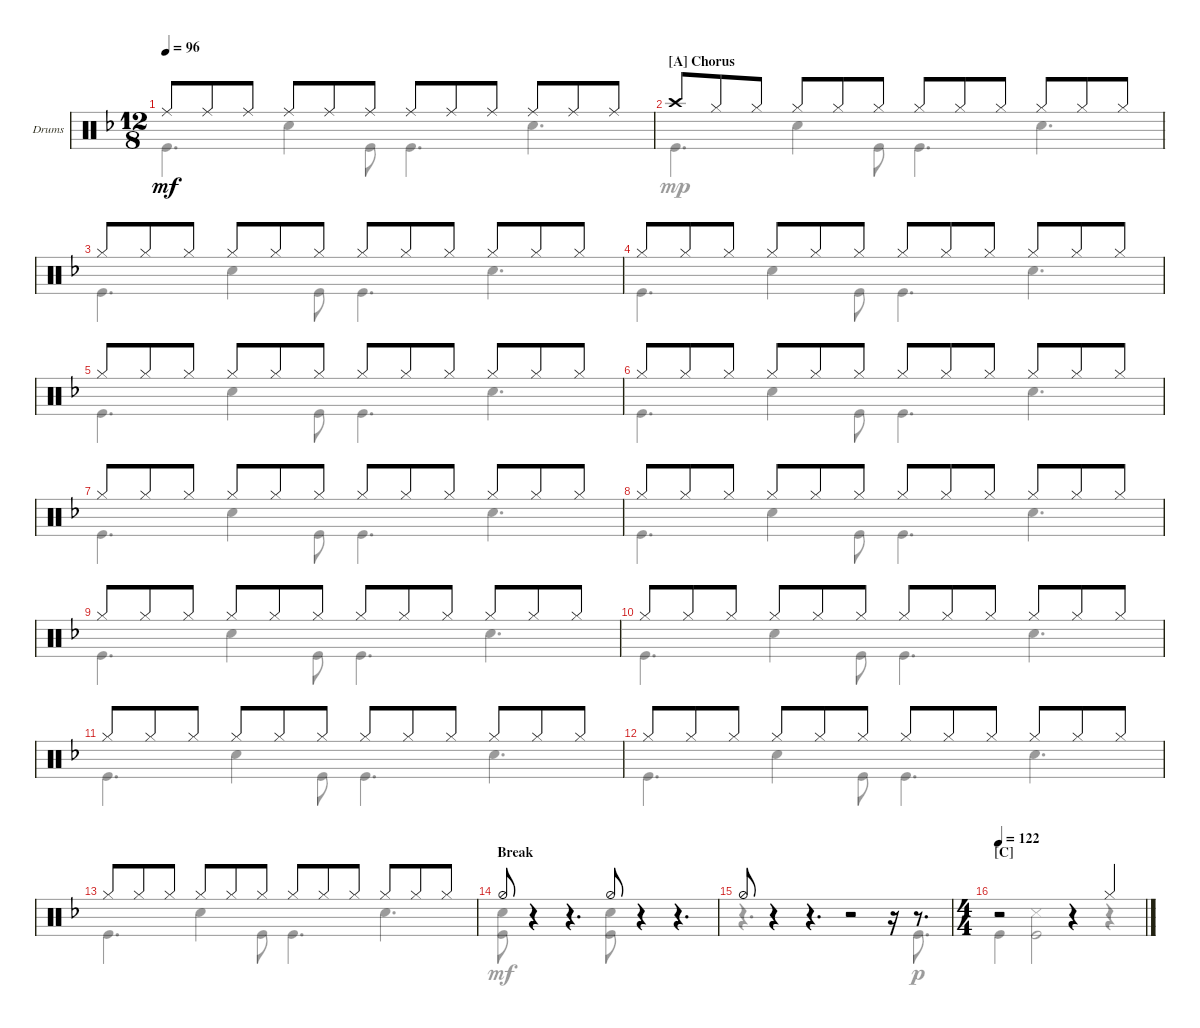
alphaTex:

\defaultSystemsLayout 4
\bracketExtendMode nobrackets
\firstSystemTrackNameOrientation horizontal
\otherSystemsTrackNameOrientation horizontal
\track ("Drumkit" "Drums") {multiBarRest instrument percussion}
\staff {score}
\articulation defaults
\voice
\ts (12 8)
\tempo 96
\clef neutral
\ks dminor "Ride (middle)".8{dy mf} "Ride (middle)".8 "Ride (middle)".8 "Ride (middle)".8 "Ride (middle)".8 "Ride (middle)".8 "Ride (middle)".8 "Ride (middle)".8 "Ride (middle)".8 "Ride (middle)".8 "Ride (middle)".8 "Ride (middle)".8
|
\section ("A" "Chorus")
"Crash high (hit)".8 "Hi-Hat (closed)".8 "Hi-Hat (closed)".8 "Hi-Hat (closed)".8 "Hi-Hat (closed)".8 "Hi-Hat (closed)".8 "Hi-Hat (closed)".8 "Hi-Hat (closed)".8 "Hi-Hat (closed)".8 "Hi-Hat (closed)".8 "Hi-Hat (closed)".8 "Hi-Hat (closed)".8 |
"Hi-Hat (closed)".8 "Hi-Hat (closed)".8 "Hi-Hat (closed)".8 "Hi-Hat (closed)".8 "Hi-Hat (closed)".8 "Hi-Hat (closed)".8 "Hi-Hat (closed)".8 "Hi-Hat (closed)".8 "Hi-Hat (closed)".8 "Hi-Hat (closed)".8 "Hi-Hat (closed)".8 "Hi-Hat (closed)".8 |
"Hi-Hat (closed)".8 "Hi-Hat (closed)".8 "Hi-Hat (closed)".8 "Hi-Hat (closed)".8 "Hi-Hat (closed)".8 "Hi-Hat (closed)".8 "Hi-Hat (closed)".8 "Hi-Hat (closed)".8 "Hi-Hat (closed)".8 "Hi-Hat (closed)".8 "Hi-Hat (closed)".8 "Hi-Hat (closed)".8 |
"Hi-Hat (closed)".8 "Hi-Hat (closed)".8 "Hi-Hat (closed)".8 "Hi-Hat (closed)".8 "Hi-Hat (closed)".8 "Hi-Hat (closed)".8 "Hi-Hat (closed)".8 "Hi-Hat (closed)".8 "Hi-Hat (closed)".8 "Hi-Hat (closed)".8 "Hi-Hat (closed)".8 "Hi-Hat (closed)".8 |
"Hi-Hat (closed)".8 "Hi-Hat (closed)".8 "Hi-Hat (closed)".8 "Hi-Hat (closed)".8 "Hi-Hat (closed)".8 "Hi-Hat (closed)".8 "Hi-Hat (closed)".8 "Hi-Hat (closed)".8 "Hi-Hat (closed)".8 "Hi-Hat (closed)".8 "Hi-Hat (closed)".8 "Hi-Hat (closed)".8 |
"Hi-Hat (closed)".8 "Hi-Hat (closed)".8 "Hi-Hat (closed)".8 "Hi-Hat (closed)".8 "Hi-Hat (closed)".8 "Hi-Hat (closed)".8 "Hi-Hat (closed)".8 "Hi-Hat (closed)".8 "Hi-Hat (closed)".8 "Hi-Hat (closed)".8 "Hi-Hat (closed)".8 "Hi-Hat (closed)".8 |
"Hi-Hat (closed)".8 "Hi-Hat (closed)".8 "Hi-Hat (closed)".8 "Hi-Hat (closed)".8 "Hi-Hat (closed)".8 "Hi-Hat (closed)".8 "Hi-Hat (closed)".8 "Hi-Hat (closed)".8 "Hi-Hat (closed)".8 "Hi-Hat (closed)".8 "Hi-Hat (closed)".8 "Hi-Hat (closed)".8 |
"Hi-Hat (closed)".8 "Hi-Hat (closed)".8 "Hi-Hat (closed)".8 "Hi-Hat (closed)".8 "Hi-Hat (closed)".8 "Hi-Hat (closed)".8 "Hi-Hat (closed)".8 "Hi-Hat (closed)".8 "Hi-Hat (closed)".8 "Hi-Hat (closed)".8 "Hi-Hat (closed)".8 "Hi-Hat (closed)".8 |
"Hi-Hat (closed)".8 "Hi-Hat (closed)".8 "Hi-Hat (closed)".8 "Hi-Hat (closed)".8 "Hi-Hat (closed)".8 "Hi-Hat (closed)".8 "Hi-Hat (closed)".8 "Hi-Hat (closed)".8 "Hi-Hat (closed)".8 "Hi-Hat (closed)".8 "Hi-Hat (closed)".8 "Hi-Hat (closed)".8 |
"Hi-Hat (closed)".8 "Hi-Hat (closed)".8 "Hi-Hat (closed)".8 "Hi-Hat (closed)".8 "Hi-Hat (closed)".8 "Hi-Hat (closed)".8 "Hi-Hat (closed)".8 "Hi-Hat (closed)".8 "Hi-Hat (closed)".8 "Hi-Hat (closed)".8 "Hi-Hat (closed)".8 "Hi-Hat (closed)".8 |
"Hi-Hat (closed)".8 "Hi-Hat (closed)".8 "Hi-Hat (closed)".8 "Hi-Hat (closed)".8 "Hi-Hat (closed)".8 "Hi-Hat (closed)".8 "Hi-Hat (closed)".8 "Hi-Hat (closed)".8 "Hi-Hat (closed)".8 "Hi-Hat (closed)".8 "Hi-Hat (closed)".8 "Hi-Hat (closed)".8 |
"Hi-Hat (closed)".8 "Hi-Hat (closed)".8 "Hi-Hat (closed)".8 "Hi-Hat (closed)".8 "Hi-Hat (closed)".8 "Hi-Hat (closed)".8 "Hi-Hat (closed)".8 "Hi-Hat (closed)".8 "Hi-Hat (closed)".8 "Hi-Hat (closed)".8 "Hi-Hat (closed)".8 "Hi-Hat (closed)".8 |
\section ("" "Break")
"Hi-Hat (half)".8 r.4 r.4{d} "Hi-Hat (half)".8 r.4 r.4{d} |
"Hi-Hat (half)".8 r.4 r.4{d} r.2 r.16 r.8{d} |
\ts (4 4)
\section ("C" "")
\tempo 122
r.2 r.4 "Hi-Hat (closed)".4
\voice
\clef neutral
\ottava regular
\simile none
\ks dminor "Kick (hit)".4{d dy mf} "Snare (hit) 2".4 "Kick (hit)".8 "Kick (hit)".4{d} "Snare (hit) 2".4{d}
|
"Kick (hit)".4{d dy mp} "Snare (hit) 2".4 "Kick (hit)".8 "Kick (hit)".4{d} "Snare (hit) 2".4{d} |
"Kick (hit)".4{d} "Snare (hit) 2".4 "Kick (hit)".8 "Kick (hit)".4{d} "Snare (hit) 2".4{d} |
"Kick (hit)".4{d} "Snare (hit) 2".4 "Kick (hit)".8 "Kick (hit)".4{d} "Snare (hit) 2".4{d} |
"Kick (hit)".4{d} "Snare (hit) 2".4 "Kick (hit)".8 "Kick (hit)".4{d} "Snare (hit) 2".4{d} |
"Kick (hit)".4{d} "Snare (hit) 2".4 "Kick (hit)".8 "Kick (hit)".4{d} "Snare (hit) 2".4{d} |
"Kick (hit)".4{d} "Snare (hit) 2".4 "Kick (hit)".8 "Kick (hit)".4{d} "Snare (hit) 2".4{d} |
"Kick (hit)".4{d} "Snare (hit) 2".4 "Kick (hit)".8 "Kick (hit)".4{d} "Snare (hit) 2".4{d} |
"Kick (hit)".4{d} "Snare (hit) 2".4 "Kick (hit)".8 "Kick (hit)".4{d} "Snare (hit) 2".4{d} |
"Kick (hit)".4{d} "Snare (hit) 2".4 "Kick (hit)".8 "Kick (hit)".4{d} "Snare (hit) 2".4{d} |
"Kick (hit)".4{d} "Snare (hit) 2".4 "Kick (hit)".8 "Kick (hit)".4{d} "Snare (hit) 2".4{d} |
"Kick (hit)".4{d} "Snare (hit) 2".4 "Kick (hit)".8 "Kick (hit)".4{d} "Snare (hit) 2".4{d} |
"Kick (hit)".4{d} "Snare (hit) 2".4 "Kick (hit)".8 "Kick (hit)".4{d} "Snare (hit) 2".4{d} |
("Kick (hit)" "Snare (hit) 2").8{dy mf} r.4 r.4{d} ("Kick (hit)" "Snare (hit) 2").8 r.4 r.4{d} |
r.4{d} r.4{d} r.2 r.16 "Kick (hit)".8{d dy p} |
"Kick (hit)".4 ("Snare (side stick) 3" "Kick (hit)").2 r.4
